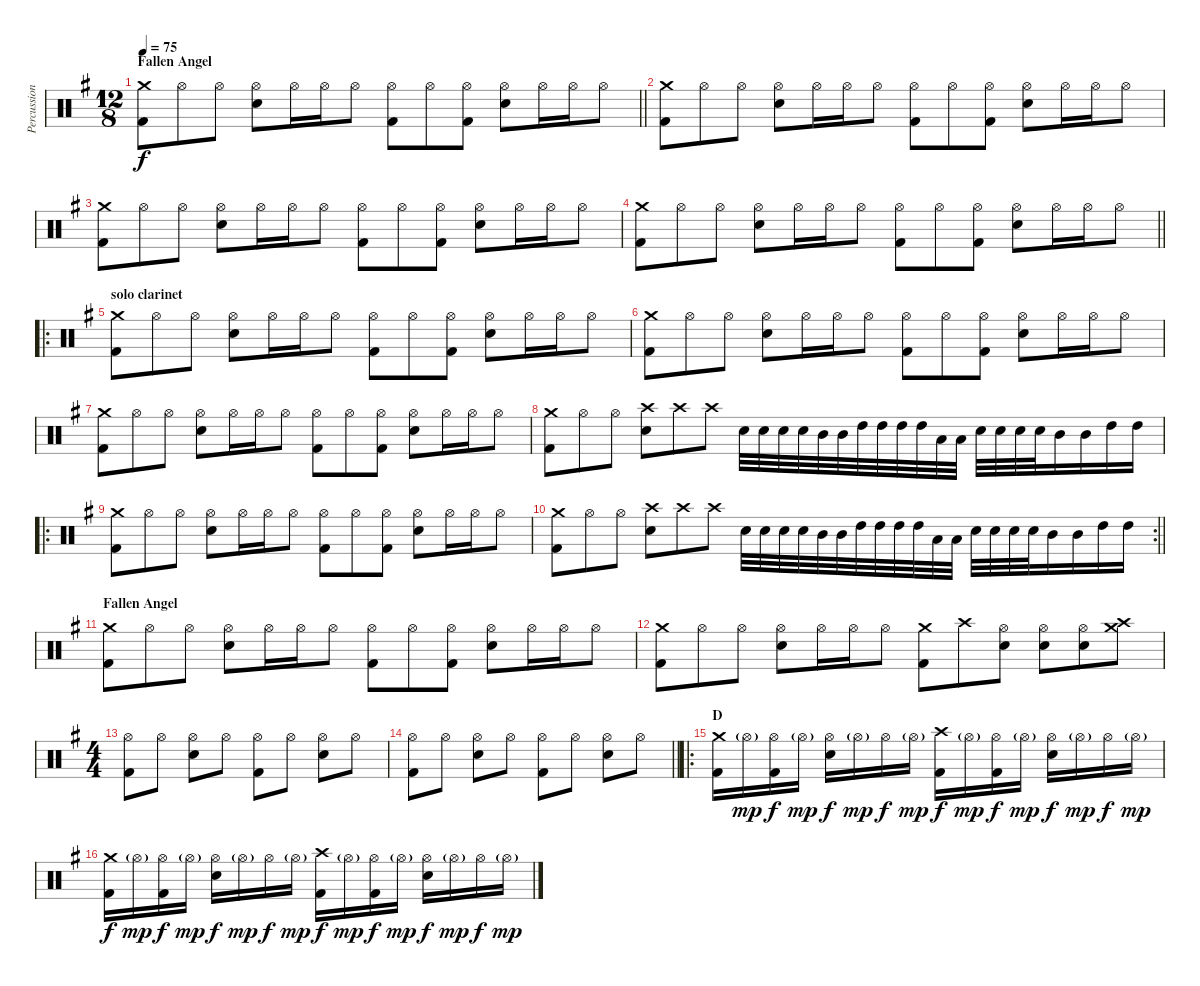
\track ("Percussion" "Percussion") {instrument percussion}
\staff {score}
\articulation defaults
\ts (12 8)
\section ("" "Fallen Angel")
\tempo 75
\clef neutral
\barLineRight lightlight
\ks g
("Crash medium (hit)" "Kick (hit) 2").8{dy f} "Hi-Hat (open)".8 "Hi-Hat (open)".8 ("Hi-Hat (open)" "Electric Snare (hit)").8 "Hi-Hat (open)".16 "Hi-Hat (open)".16 "Hi-Hat (open)".8 ("Hi-Hat (open)" "Kick (hit) 2").8 "Hi-Hat (open)".8 ("Hi-Hat (open)" "Kick (hit) 2").8 ("Hi-Hat (open)" "Electric Snare (hit)").8 "Hi-Hat (open)".16 "Hi-Hat (open)".16 "Hi-Hat (open)".8 |
("Crash medium (hit)" "Kick (hit) 2").8 "Hi-Hat (open)".8 "Hi-Hat (open)".8 ("Hi-Hat (open)" "Electric Snare (hit)").8 "Hi-Hat (open)".16 "Hi-Hat (open)".16 "Hi-Hat (open)".8 ("Hi-Hat (open)" "Kick (hit) 2").8 "Hi-Hat (open)".8 ("Hi-Hat (open)" "Kick (hit) 2").8 ("Hi-Hat (open)" "Electric Snare (hit)").8 "Hi-Hat (open)".16 "Hi-Hat (open)".16 "Hi-Hat (open)".8 |
("Crash medium (hit)" "Kick (hit) 2").8 "Hi-Hat (open)".8 "Hi-Hat (open)".8 ("Hi-Hat (open)" "Electric Snare (hit)").8 "Hi-Hat (open)".16 "Hi-Hat (open)".16 "Hi-Hat (open)".8 ("Hi-Hat (open)" "Kick (hit) 2").8 "Hi-Hat (open)".8 ("Hi-Hat (open)" "Kick (hit) 2").8 ("Hi-Hat (open)" "Electric Snare (hit)").8 "Hi-Hat (open)".16 "Hi-Hat (open)".16 "Hi-Hat (open)".8 |
\barLineRight lightlight
("Crash medium (hit)" "Kick (hit) 2").8 "Hi-Hat (open)".8 "Hi-Hat (open)".8 ("Hi-Hat (open)" "Electric Snare (hit)").8 "Hi-Hat (open)".16 "Hi-Hat (open)".16 "Hi-Hat (open)".8 ("Hi-Hat (open)" "Kick (hit) 2").8 "Hi-Hat (open)".8 ("Hi-Hat (open)" "Kick (hit) 2").8 ("Hi-Hat (open)" "Electric Snare (hit)").8 "Hi-Hat (open)".16 "Hi-Hat (open)".16 "Hi-Hat (open)".8 |
\ro
\section ("" "solo clarinet")
("Crash medium (hit)" "Kick (hit) 2").8 "Hi-Hat (open)".8 "Hi-Hat (open)".8 ("Hi-Hat (open)" "Electric Snare (hit)").8 "Hi-Hat (open)".16 "Hi-Hat (open)".16 "Hi-Hat (open)".8 ("Hi-Hat (open)" "Kick (hit) 2").8 "Hi-Hat (open)".8 ("Hi-Hat (open)" "Kick (hit) 2").8 ("Hi-Hat (open)" "Electric Snare (hit)").8 "Hi-Hat (open)".16 "Hi-Hat (open)".16 "Hi-Hat (open)".8 |
("Crash medium (hit)" "Kick (hit) 2").8 "Hi-Hat (open)".8 "Hi-Hat (open)".8 ("Hi-Hat (open)" "Electric Snare (hit)").8 "Hi-Hat (open)".16 "Hi-Hat (open)".16 "Hi-Hat (open)".8 ("Hi-Hat (open)" "Kick (hit) 2").8 "Hi-Hat (open)".8 ("Hi-Hat (open)" "Kick (hit) 2").8 ("Hi-Hat (open)" "Electric Snare (hit)").8 "Hi-Hat (open)".16 "Hi-Hat (open)".16 "Hi-Hat (open)".8 |
("Crash medium (hit)" "Kick (hit) 2").8 "Hi-Hat (open)".8 "Hi-Hat (open)".8 ("Hi-Hat (open)" "Electric Snare (hit)").8 "Hi-Hat (open)".16 "Hi-Hat (open)".16 "Hi-Hat (open)".8 ("Hi-Hat (open)" "Kick (hit) 2").8 "Hi-Hat (open)".8 ("Hi-Hat (open)" "Kick (hit) 2").8 ("Hi-Hat (open)" "Electric Snare (hit)").8 "Hi-Hat (open)".16 "Hi-Hat (open)".16 "Hi-Hat (open)".8 |
("Crash medium (hit)" "Kick (hit) 2").8 "Hi-Hat (open)".8 "Hi-Hat (open)".8 ("Crash high (hit)" "Electric Snare (hit)").8 "Crash high (hit)".8 "Crash high (hit)".8 "Snare (hit) 2".32 "Snare (hit) 2".32 "Snare (hit) 2".32 "Snare (hit) 2".32 "Mid Tom (hit)".32 "Mid Tom (hit)".32 "High Tom (hit)".32 "High Tom (hit)".32 "High Tom (hit)".32 "High Tom (hit)".32 "Low Tom (hit)".32 "Low Tom (hit)".32 "Electric Snare (hit)".32 "Electric Snare (hit)".32 "Electric Snare (hit)".32 "Electric Snare (hit)".32 "Mid Tom (hit)".16 "Mid Tom (hit)".16 "High Tom (hit)".16 "High Tom (hit)".16 |
\ro
("Crash medium (hit)" "Kick (hit) 2").8 "Hi-Hat (open)".8 "Hi-Hat (open)".8 ("Hi-Hat (open)" "Electric Snare (hit)").8 "Hi-Hat (open)".16 "Hi-Hat (open)".16 "Hi-Hat (open)".8 ("Hi-Hat (open)" "Kick (hit) 2").8 "Hi-Hat (open)".8 ("Hi-Hat (open)" "Kick (hit) 2").8 ("Hi-Hat (open)" "Electric Snare (hit)").8 "Hi-Hat (open)".16 "Hi-Hat (open)".16 "Hi-Hat (open)".8 |
\rc 2
\barLineRight lightlight
("Crash medium (hit)" "Kick (hit) 2").8 "Hi-Hat (open)".8 "Hi-Hat (open)".8 ("Crash high (hit)" "Electric Snare (hit)").8 "Crash high (hit)".8 "Crash high (hit)".8 "Snare (hit) 2".32 "Snare (hit) 2".32 "Snare (hit) 2".32 "Snare (hit) 2".32 "Mid Tom (hit)".32 "Mid Tom (hit)".32 "High Tom (hit)".32 "High Tom (hit)".32 "High Tom (hit)".32 "High Tom (hit)".32 "Low Tom (hit)".32 "Low Tom (hit)".32 "Electric Snare (hit)".32 "Electric Snare (hit)".32 "Electric Snare (hit)".32 "Electric Snare (hit)".32 "Mid Tom (hit)".16 "Mid Tom (hit)".16 "High Tom (hit)".16 "High Tom (hit)".16 |
\section ("" "Fallen Angel")
("Crash medium (hit)" "Kick (hit) 2").8 "Hi-Hat (open)".8 "Hi-Hat (open)".8 ("Hi-Hat (open)" "Electric Snare (hit)").8 "Hi-Hat (open)".16 "Hi-Hat (open)".16 "Hi-Hat (open)".8 ("Hi-Hat (open)" "Kick (hit) 2").8 "Hi-Hat (open)".8 ("Hi-Hat (open)" "Kick (hit) 2").8 ("Hi-Hat (open)" "Electric Snare (hit)").8 "Hi-Hat (open)".16 "Hi-Hat (open)".16 "Hi-Hat (open)".8 |
("Crash medium (hit)" "Kick (hit) 2").8 "Hi-Hat (open)".8 "Hi-Hat (open)".8 ("Hi-Hat (open)" "Electric Snare (hit)").8 "Hi-Hat (open)".16 "Hi-Hat (open)".16 "Hi-Hat (open)".8 ("Crash medium (hit)" "Kick (hit) 2").8 "Crash high (hit)".8 ("Hi-Hat (open)" "Electric Snare (hit)").8 ("Hi-Hat (open)" "Electric Snare (hit)").8 ("Hi-Hat (open)" "Electric Snare (hit)").8 ("Crash high (hit)" "Crash medium (hit)").8 |
\ts (4 4)
("Hi-Hat (open)" "Kick (hit) 2").8 "Hi-Hat (open)".8 ("Hi-Hat (open)" "Electric Snare (hit)").8 "Hi-Hat (open)".8 ("Hi-Hat (open)" "Kick (hit) 2").8 "Hi-Hat (open)".8 ("Hi-Hat (open)" "Electric Snare (hit)").8 "Hi-Hat (open)".8 |
\barLineRight lightlight
("Hi-Hat (open)" "Kick (hit) 2").8 "Hi-Hat (open)".8 ("Hi-Hat (open)" "Electric Snare (hit)").8 "Hi-Hat (open)".8 ("Hi-Hat (open)" "Kick (hit) 2").8 "Hi-Hat (open)".8 ("Hi-Hat (open)" "Electric Snare (hit)").8 "Hi-Hat (open)".8 |
\ro
\section ("" "D")
("Crash medium (hit)" "Kick (hit) 2").16 "Hi-Hat (open)"{g}.16{dy mp} ("Hi-Hat (open)" "Kick (hit) 2").16{dy f} "Hi-Hat (open)"{g}.16{dy mp} ("Hi-Hat (open)" "Electric Snare (hit)").16{dy f} "Hi-Hat (open)"{g}.16{dy mp} "Hi-Hat (open)".16{dy f} "Hi-Hat (open)"{g}.16{dy mp} ("Crash high (hit)" "Kick (hit) 2").16{dy f} "Hi-Hat (open)"{g}.16{dy mp} ("Hi-Hat (open)" "Kick (hit) 2").16{dy f} "Hi-Hat (open)"{g}.16{dy mp} ("Hi-Hat (open)" "Electric Snare (hit)").16{dy f} "Hi-Hat (open)"{g}.16{dy mp} "Hi-Hat (open)".16{dy f} "Hi-Hat (open)"{g}.16{dy mp} |
("Crash medium (hit)" "Kick (hit) 2").16{dy f} "Hi-Hat (open)"{g}.16{dy mp} ("Hi-Hat (open)" "Kick (hit) 2").16{dy f} "Hi-Hat (open)"{g}.16{dy mp} ("Hi-Hat (open)" "Electric Snare (hit)").16{dy f} "Hi-Hat (open)"{g}.16{dy mp} "Hi-Hat (open)".16{dy f} "Hi-Hat (open)"{g}.16{dy mp} ("Crash high (hit)" "Kick (hit) 2").16{dy f} "Hi-Hat (open)"{g}.16{dy mp} ("Hi-Hat (open)" "Kick (hit) 2").16{dy f} "Hi-Hat (open)"{g}.16{dy mp} ("Hi-Hat (open)" "Electric Snare (hit)").16{dy f} "Hi-Hat (open)"{g}.16{dy mp} "Hi-Hat (open)".16{dy f} "Hi-Hat (open)"{g}.16{dy mp}
